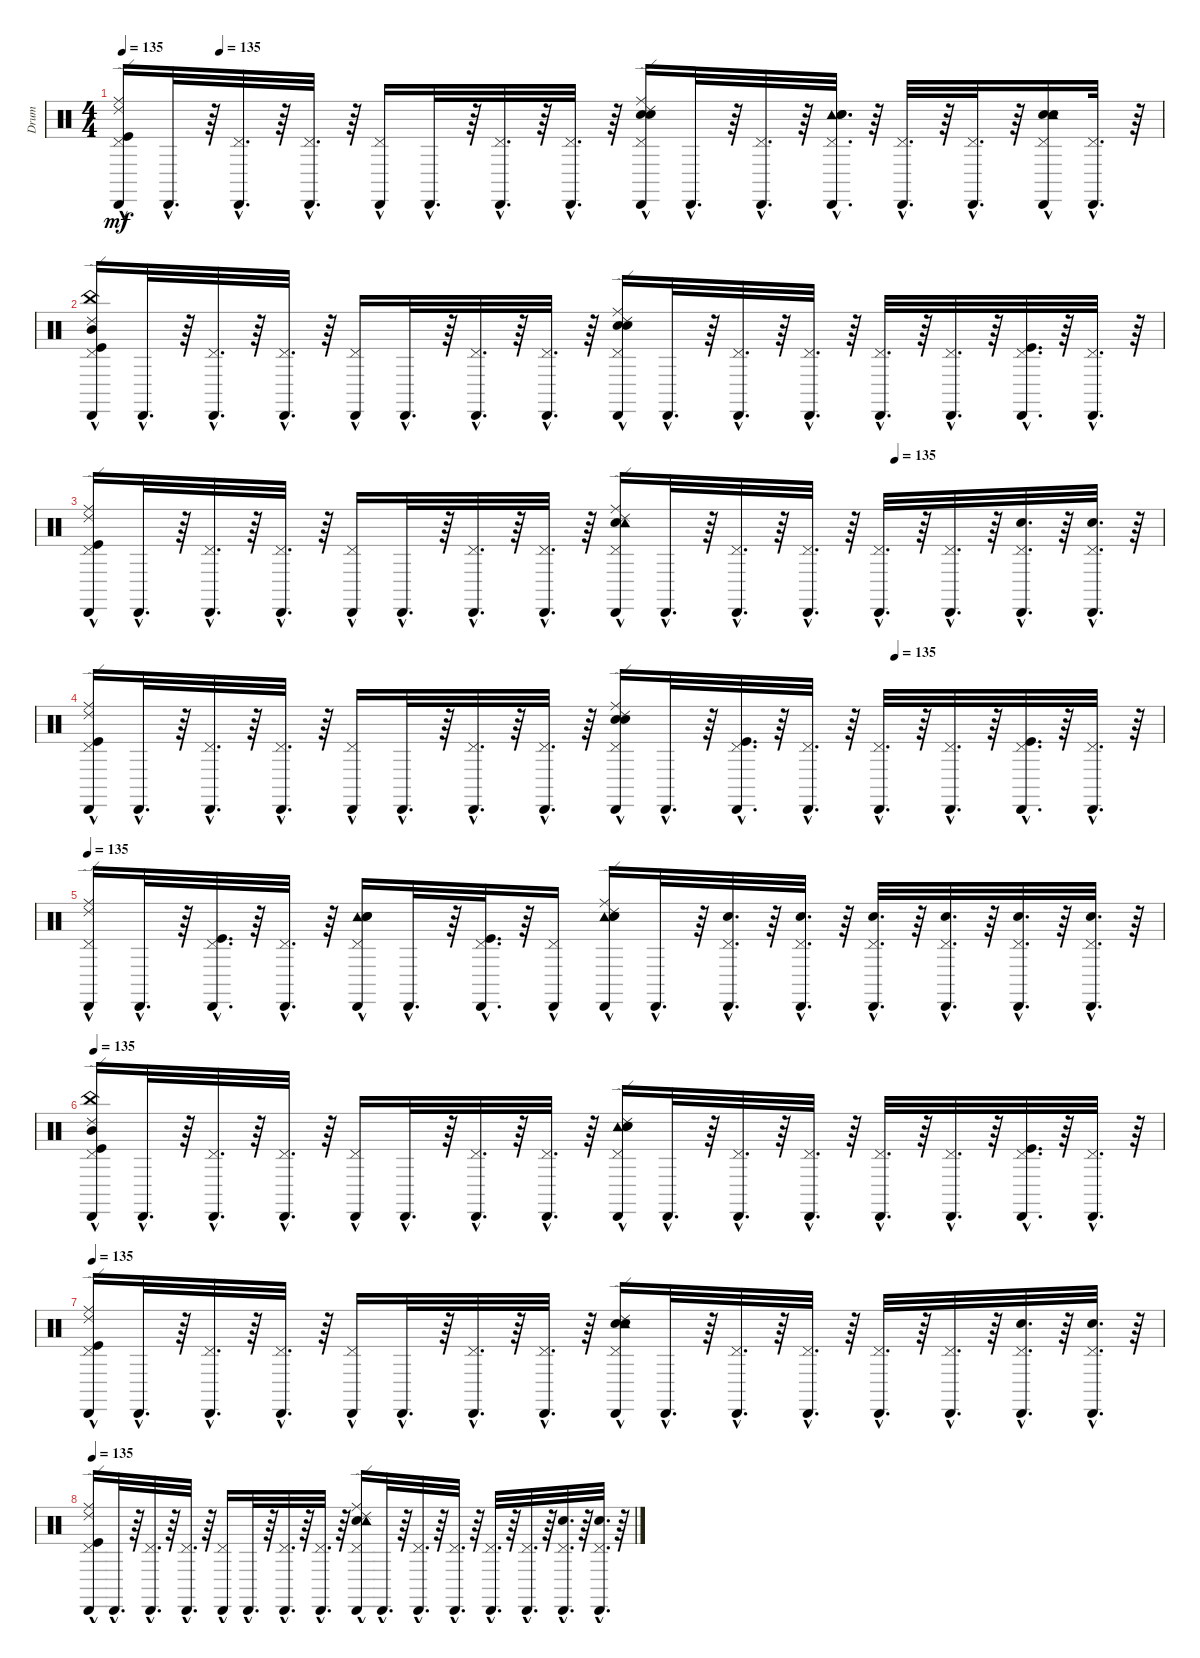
\track ("Drum" "Drum") {instrument percussion}
\staff {score}
\articulation defaults
\ts (4 4)
\tempo 135
\tempo (135 0.09375)
\clef neutral
\ks c
("Cabasa (hit)"{hac} "Ride (middle)"{hac} "Kick (hit)"{hac} "Ride (edge) 2"{hac} "Pedal Hi-Hat (hit)"{hac}).16{dy mf} "Cabasa (hit)"{hac}.32{d} r.64 ("Cabasa (hit)"{hac} "Pedal Hi-Hat (hit)"{hac}).32{d} r.64 ("Cabasa (hit)"{hac} "Pedal Hi-Hat (hit)"{hac}).32{d} r.64 ("Cabasa (hit)"{hac} "Pedal Hi-Hat (hit)"{hac}).16 "Cabasa (hit)"{hac}.32{d} r.64 ("Cabasa (hit)"{hac} "Pedal Hi-Hat (hit)"{hac}).32{d} r.64 ("Cabasa (hit)"{hac} "Pedal Hi-Hat (hit)"{hac}).32{d} r.64 ("Cabasa (hit)"{hac} "Ride (middle)"{hac} "Pedal Hi-Hat (hit)"{hac} "Electric Snare (hit)"{hac} "Snare (hit) 2"{hac} "Ride (edge) 2"{hac}).16 "Cabasa (hit)"{hac}.32{d} r.64 ("Cabasa (hit)"{hac} "Pedal Hi-Hat (hit)"{hac}).32{d} r.64 ("Cabasa (hit)"{hac} "Tambourine (hit)"{hac} "Electric Snare (hit)"{hac} "Snare (hit) 2"{hac} "Pedal Hi-Hat (hit)"{hac}).32{d} r.64 ("Cabasa (hit)"{hac} "Pedal Hi-Hat (hit)"{hac}).32{d} r.64 ("Cabasa (hit)"{hac} "Pedal Hi-Hat (hit)"{hac}).32{d} r.64 ("Cabasa (hit)"{hac} "Snare (hit) 2"{hac} "Electric Snare (hit)"{hac} "Tambourine (hit)" "Pedal Hi-Hat (hit)"{hac}).16 ("Cabasa (hit)"{hac} "Pedal Hi-Hat (hit)"{hac}).32{d} r.64 |
("Cabasa (hit)"{hac} "Mid Tom (hit)"{hac} "China (hit)"{hac} "Pedal Hi-Hat (hit)"{hac} "Kick (hit)"{hac} "Ride (edge) 2"{hac}).16 "Cabasa (hit)"{hac}.32{d} r.64 ("Cabasa (hit)"{hac} "Pedal Hi-Hat (hit)"{hac}).32{d} r.64 ("Cabasa (hit)"{hac} "Pedal Hi-Hat (hit)"{hac}).32{d} r.64 ("Cabasa (hit)"{hac} "Pedal Hi-Hat (hit)"{hac}).16 "Cabasa (hit)"{hac}.32{d} r.64 ("Cabasa (hit)"{hac} "Pedal Hi-Hat (hit)"{hac}).32{d} r.64 ("Cabasa (hit)"{hac} "Pedal Hi-Hat (hit)"{hac}).32{d} r.64 ("Cabasa (hit)"{hac} "Ride (middle)"{hac} "Snare (hit) 2"{hac} "Electric Snare (hit)" "Pedal Hi-Hat (hit)"{hac} "Ride (edge) 2"{hac}).16 "Cabasa (hit)"{hac}.32{d} r.64 ("Cabasa (hit)"{hac} "Pedal Hi-Hat (hit)"{hac}).32{d} r.64 ("Cabasa (hit)"{hac} "Pedal Hi-Hat (hit)"{hac}).32{d} r.64 ("Cabasa (hit)"{hac} "Pedal Hi-Hat (hit)"{hac}).32{d} r.64 ("Cabasa (hit)"{hac} "Pedal Hi-Hat (hit)"{hac}).32{d} r.64 ("Cabasa (hit)"{hac} "Pedal Hi-Hat (hit)"{hac} "Kick (hit)"{hac}).32{d} r.64 ("Cabasa (hit)"{hac} "Pedal Hi-Hat (hit)"{hac}).32{d} r.64 |
\tempo (135 0.75)
("Cabasa (hit)"{hac} "Ride (middle)"{hac} "Pedal Hi-Hat (hit)"{hac} "Kick (hit)"{hac} "Ride (edge) 2"{hac}).16 "Cabasa (hit)"{hac}.32{d} r.64 ("Cabasa (hit)"{hac} "Pedal Hi-Hat (hit)"{hac}).32{d} r.64 ("Cabasa (hit)"{hac} "Pedal Hi-Hat (hit)"{hac}).32{d} r.64 ("Cabasa (hit)"{hac} "Pedal Hi-Hat (hit)"{hac}).16 "Cabasa (hit)"{hac}.32{d} r.64 ("Cabasa (hit)"{hac} "Pedal Hi-Hat (hit)"{hac}).32{d} r.64 ("Cabasa (hit)"{hac} "Pedal Hi-Hat (hit)"{hac}).32{d} r.64 ("Cabasa (hit)"{hac} "Ride (middle)"{hac} "Pedal Hi-Hat (hit)"{hac} "Snare (hit) 2"{hac} "Ride (edge) 2"{hac} "Tambourine (hit)").16 "Cabasa (hit)"{hac}.32{d} r.64 ("Cabasa (hit)"{hac} "Pedal Hi-Hat (hit)"{hac}).32{d} r.64 ("Cabasa (hit)"{hac} "Pedal Hi-Hat (hit)"{hac}).32{d} r.64 ("Cabasa (hit)"{hac} "Pedal Hi-Hat (hit)"{hac}).32{d} r.64 ("Cabasa (hit)"{hac} "Pedal Hi-Hat (hit)"{hac}).32{d} r.64 ("Cabasa (hit)"{hac} "Snare (hit) 2"{hac} "Pedal Hi-Hat (hit)"{hac}).32{d} r.64 ("Cabasa (hit)"{hac} "Snare (hit) 2"{hac} "Pedal Hi-Hat (hit)"{hac}).32{d} r.64 |
\tempo (135 0.75)
("Cabasa (hit)"{hac} "Ride (middle)"{hac} "Pedal Hi-Hat (hit)"{hac} "Kick (hit)"{hac} "Ride (edge) 2"{hac}).16 "Cabasa (hit)"{hac}.32{d} r.64 ("Cabasa (hit)"{hac} "Pedal Hi-Hat (hit)"{hac}).32{d} r.64 ("Cabasa (hit)"{hac} "Pedal Hi-Hat (hit)"{hac}).32{d} r.64 ("Cabasa (hit)"{hac} "Pedal Hi-Hat (hit)"{hac}).16 "Cabasa (hit)"{hac}.32{d} r.64 ("Cabasa (hit)"{hac} "Pedal Hi-Hat (hit)"{hac}).32{d} r.64 ("Cabasa (hit)"{hac} "Pedal Hi-Hat (hit)"{hac}).32{d} r.64 ("Cabasa (hit)"{hac} "Ride (middle)"{hac} "Snare (hit) 2"{hac} "Electric Snare (hit)"{hac} "Pedal Hi-Hat (hit)"{hac} "Ride (edge) 2"{hac}).16 "Cabasa (hit)"{hac}.32{d} r.64 ("Cabasa (hit)"{hac} "Kick (hit)"{hac} "Pedal Hi-Hat (hit)"{hac}).32{d} r.64 ("Cabasa (hit)"{hac} "Pedal Hi-Hat (hit)"{hac}).32{d} r.64 ("Cabasa (hit)"{hac} "Pedal Hi-Hat (hit)"{hac}).32{d} r.64 ("Cabasa (hit)"{hac} "Pedal Hi-Hat (hit)"{hac}).32{d} r.64 ("Cabasa (hit)"{hac} "Kick (hit)"{hac} "Pedal Hi-Hat (hit)"{hac}).32{d} r.64 ("Cabasa (hit)"{hac} "Pedal Hi-Hat (hit)"{hac}).32{d} r.64 |
\tempo 135
("Cabasa (hit)"{hac} "Ride (middle)"{hac} "Pedal Hi-Hat (hit)"{hac} "Ride (edge) 2"{hac}).16 "Cabasa (hit)"{hac}.32{d} r.64 ("Cabasa (hit)"{hac} "Kick (hit)"{hac} "Pedal Hi-Hat (hit)"{hac}).32{d} r.64 ("Cabasa (hit)"{hac} "Pedal Hi-Hat (hit)"{hac}).32{d} r.64 ("Cabasa (hit)"{hac} "Tambourine (hit)"{hac} "Electric Snare (hit)"{hac} "Snare (hit) 2"{hac} "Pedal Hi-Hat (hit)"{hac}).16 "Cabasa (hit)"{hac}.32{d} r.64 ("Cabasa (hit)"{hac} "Kick (hit)"{hac} "Pedal Hi-Hat (hit)"{hac}).32{d} r.64 ("Cabasa (hit)"{hac} "Pedal Hi-Hat (hit)").16 ("Cabasa (hit)"{hac} "Ride (middle)" "Tambourine (hit)"{hac} "Ride (edge) 2"{hac} "Snare (hit) 2"{hac} "Electric Snare (hit)"{hac}).16 "Cabasa (hit)"{hac}.32{d} r.64 ("Cabasa (hit)"{hac} "Snare (hit) 2"{hac} "Pedal Hi-Hat (hit)"{hac}).32{d} r.64 ("Cabasa (hit)"{hac} "Snare (hit) 2"{hac} "Pedal Hi-Hat (hit)"{hac}).32{d} r.64 ("Cabasa (hit)"{hac} "Snare (hit) 2"{hac} "Pedal Hi-Hat (hit)"{hac}).32{d} r.64 ("Cabasa (hit)"{hac} "Snare (hit) 2"{hac} "Pedal Hi-Hat (hit)"{hac}).32{d} r.64 ("Cabasa (hit)"{hac} "Snare (hit) 2"{hac} "Pedal Hi-Hat (hit)"{hac}).32{d} r.64 ("Cabasa (hit)"{hac} "Snare (hit) 2"{hac} "Pedal Hi-Hat (hit)"{hac}).32{d} r.64 |
\tempo 135
("Cabasa (hit)"{hac} "Ride (edge) 2"{hac} "Kick (hit)"{hac} "Pedal Hi-Hat (hit)"{hac} "China (hit)"{hac} "Mid Tom (hit)"{hac}).16 "Cabasa (hit)"{hac}.32{d} r.64 ("Cabasa (hit)"{hac} "Pedal Hi-Hat (hit)"{hac}).32{d} r.64 ("Cabasa (hit)"{hac} "Pedal Hi-Hat (hit)"{hac}).32{d} r.64 ("Cabasa (hit)"{hac} "Pedal Hi-Hat (hit)"{hac}).16 "Cabasa (hit)"{hac}.32{d} r.64 ("Cabasa (hit)"{hac} "Pedal Hi-Hat (hit)"{hac}).32{d} r.64 ("Cabasa (hit)"{hac} "Pedal Hi-Hat (hit)"{hac}).32{d} r.64 ("Cabasa (hit)"{hac} "Tambourine (hit)"{hac} "Ride (edge) 2"{hac} "Pedal Hi-Hat (hit)"{hac} "Electric Snare (hit)"{hac} "Snare (hit) 2"{hac}).16 "Cabasa (hit)"{hac}.32{d} r.64 ("Cabasa (hit)"{hac} "Pedal Hi-Hat (hit)"{hac}).32{d} r.64 ("Cabasa (hit)"{hac} "Pedal Hi-Hat (hit)"{hac}).32{d} r.64 ("Cabasa (hit)"{hac} "Pedal Hi-Hat (hit)"{hac}).32{d} r.64 ("Cabasa (hit)"{hac} "Pedal Hi-Hat (hit)"{hac}).32{d} r.64 ("Cabasa (hit)"{hac} "Kick (hit)"{hac} "Pedal Hi-Hat (hit)"{hac}).32{d} r.64 ("Cabasa (hit)"{hac} "Pedal Hi-Hat (hit)"{hac}).32{d} r.64 |
\tempo 135
("Cabasa (hit)"{hac} "Ride (edge) 2"{hac} "Kick (hit)"{hac} "Pedal Hi-Hat (hit)"{hac} "Ride (middle)").16 "Cabasa (hit)"{hac}.32{d} r.64 ("Cabasa (hit)"{hac} "Pedal Hi-Hat (hit)"{hac}).32{d} r.64 ("Cabasa (hit)"{hac} "Pedal Hi-Hat (hit)"{hac}).32{d} r.64 ("Cabasa (hit)"{hac} "Pedal Hi-Hat (hit)"{hac}).16 "Cabasa (hit)"{hac}.32{d} r.64 ("Cabasa (hit)"{hac} "Pedal Hi-Hat (hit)"{hac}).32{d} r.64 ("Cabasa (hit)"{hac} "Pedal Hi-Hat (hit)"{hac}).32{d} r.64 ("Cabasa (hit)"{hac} "Electric Snare (hit)" "Tambourine (hit)"{hac} "Ride (edge) 2"{hac} "Snare (hit) 2"{hac} "Pedal Hi-Hat (hit)"{hac}).16 "Cabasa (hit)"{hac}.32{d} r.64 ("Cabasa (hit)"{hac} "Pedal Hi-Hat (hit)"{hac}).32{d} r.64 ("Cabasa (hit)"{hac} "Pedal Hi-Hat (hit)"{hac}).32{d} r.64 ("Cabasa (hit)"{hac} "Pedal Hi-Hat (hit)"{hac}).32{d} r.64 ("Cabasa (hit)"{hac} "Pedal Hi-Hat (hit)"{hac}).32{d} r.64 ("Cabasa (hit)"{hac} "Pedal Hi-Hat (hit)"{hac} "Snare (hit) 2"{hac}).32{d} r.64 ("Cabasa (hit)"{hac} "Pedal Hi-Hat (hit)"{hac} "Snare (hit) 2"{hac}).32{d} r.64 |
\tempo 135
("Cabasa (hit)"{hac} "Ride (middle)"{hac} "Pedal Hi-Hat (hit)"{hac} "Kick (hit)"{hac} "Ride (edge) 2"{hac}).16 "Cabasa (hit)"{hac}.32{d} r.64 ("Cabasa (hit)"{hac} "Pedal Hi-Hat (hit)"{hac}).32{d} r.64 ("Cabasa (hit)"{hac} "Pedal Hi-Hat (hit)"{hac}).32{d} r.64 ("Cabasa (hit)"{hac} "Pedal Hi-Hat (hit)"{hac}).16 "Cabasa (hit)"{hac}.32{d} r.64 ("Cabasa (hit)"{hac} "Pedal Hi-Hat (hit)"{hac}).32{d} r.64 ("Cabasa (hit)"{hac} "Pedal Hi-Hat (hit)"{hac}).32{d} r.64 ("Cabasa (hit)"{hac} "Ride (middle)"{hac} "Pedal Hi-Hat (hit)"{hac} "Snare (hit) 2"{hac} "Ride (edge) 2"{hac} "Tambourine (hit)"{hac}).16 "Cabasa (hit)"{hac}.32{d} r.64 ("Cabasa (hit)"{hac} "Pedal Hi-Hat (hit)"{hac}).32{d} r.64 ("Cabasa (hit)"{hac} "Pedal Hi-Hat (hit)"{hac}).32{d} r.64 ("Cabasa (hit)"{hac} "Pedal Hi-Hat (hit)"{hac}).32{d} r.64 ("Cabasa (hit)"{hac} "Pedal Hi-Hat (hit)"{hac}).32{d} r.64 ("Cabasa (hit)"{hac} "Snare (hit) 2"{hac} "Pedal Hi-Hat (hit)"{hac}).32{d} r.64 ("Cabasa (hit)"{hac} "Snare (hit) 2"{hac} "Pedal Hi-Hat (hit)"{hac}).32{d} r.64
